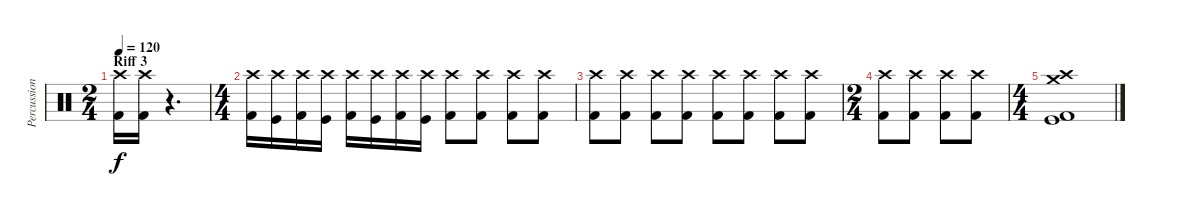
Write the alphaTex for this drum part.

\track ("Percussion" "Percussion") {instrument percussion}
\staff {score}
\articulation defaults
\ts (2 4)
\section ("" "Riff 3")
\tempo 120
\clef neutral
\ks c
("Kick (hit) 2" "Crash high (hit)").16{dy f} ("Kick (hit) 2" "Crash high (hit)").16 r.4{d} |
\ts (4 4)
("Kick (hit) 2" "Crash high (hit)").16 ("Kick (hit)" "Crash high (hit)").16 ("Kick (hit) 2" "Crash high (hit)").16 ("Kick (hit)" "Crash high (hit)").16 ("Kick (hit) 2" "Crash high (hit)").16 ("Kick (hit)" "Crash high (hit)").16 ("Kick (hit) 2" "Crash high (hit)").16 ("Kick (hit)" "Crash high (hit)").16 ("Kick (hit) 2" "Crash high (hit)").8 ("Kick (hit) 2" "Crash high (hit)").8 ("Kick (hit) 2" "Crash high (hit)").8 ("Kick (hit) 2" "Crash high (hit)").8 |
("Kick (hit) 2" "Crash high (hit)").8 ("Kick (hit) 2" "Crash high (hit)").8 ("Kick (hit) 2" "Crash high (hit)").8 ("Kick (hit) 2" "Crash high (hit)").8 ("Kick (hit) 2" "Crash high (hit)").8 ("Kick (hit) 2" "Crash high (hit)").8 ("Kick (hit) 2" "Crash high (hit)").8 ("Kick (hit) 2" "Crash high (hit)").8 |
\ts (2 4)
("Kick (hit) 2" "Crash high (hit)").8 ("Kick (hit) 2" "Crash high (hit)").8 ("Kick (hit) 2" "Crash high (hit)").8 ("Kick (hit) 2" "Crash high (hit)").8 |
\ts (4 4)
("Kick (hit)" "Kick (hit) 2" "Crash high (hit)" "Crash medium (hit)").1
